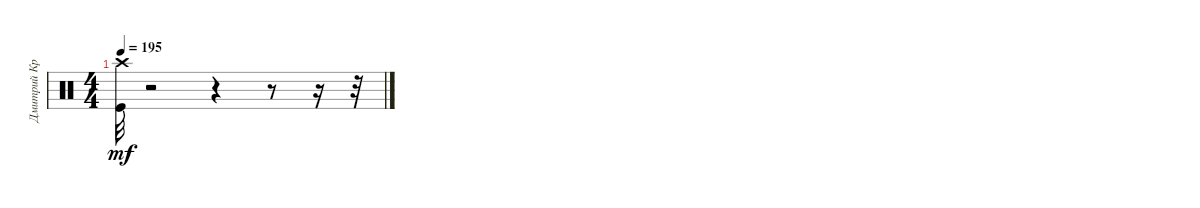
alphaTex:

\track ("Дмитрий Кривенков" "Дмитрий Кр") {instrument percussion}
\staff {score}
\articulation defaults
\ts (4 4)
\tempo 195
\clef neutral
\ks c
("Crash high (hit)" "Kick (hit)").32{dy mf} r.2 r.4 r.8 r.16 r.32
